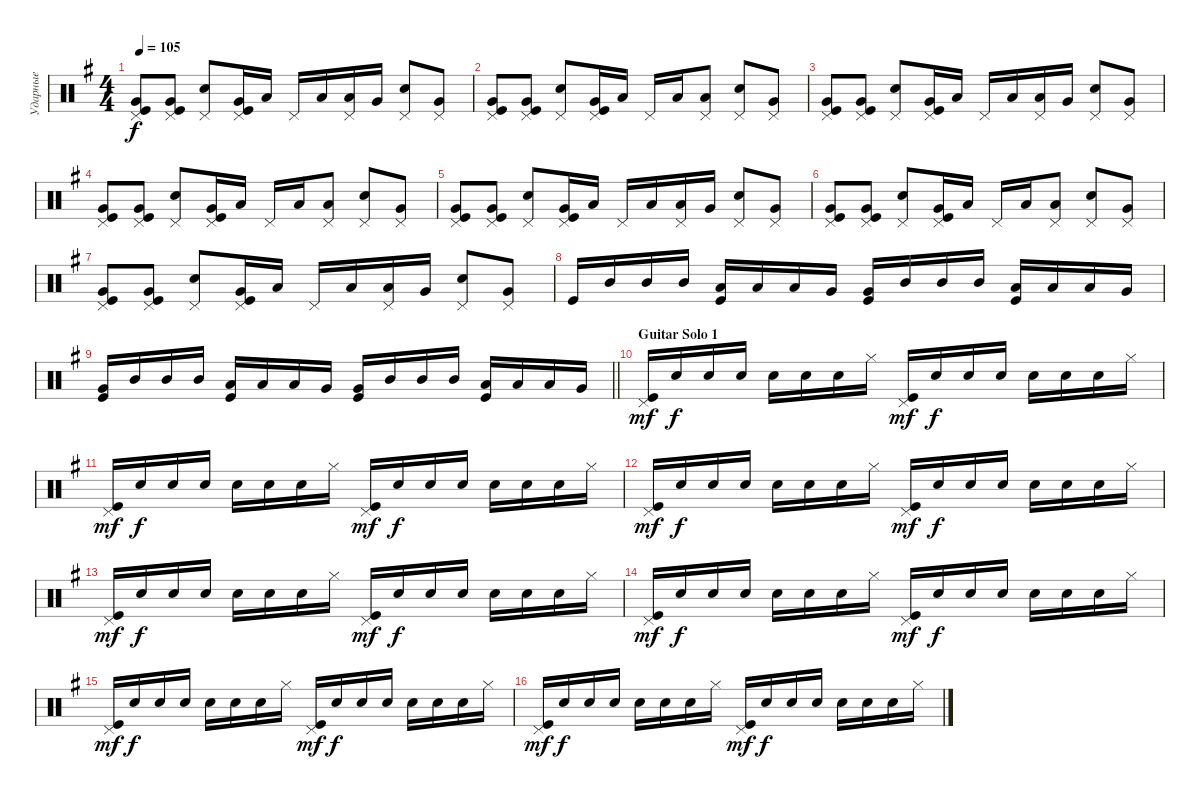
\track ("Ударные" "Ударные") {instrument percussion}
\staff {score}
\articulation defaults
\ts (4 4)
\tempo 105
\clef neutral
\ks eminor
("Kick (hit)" "Very Low Tom (hit)" "Pedal Hi-Hat (hit)").8{dy f} ("Kick (hit)" "Very Low Tom (hit)" "Pedal Hi-Hat (hit)").8 ("Snare (hit) 2" "Pedal Hi-Hat (hit)").8 ("Kick (hit)" "Very Low Tom (hit)" "Pedal Hi-Hat (hit)").16 "Low Tom (hit)".16 "Pedal Hi-Hat (hit)".16 "Low Tom (hit)".16 ("Low Tom (hit)" "Pedal Hi-Hat (hit)").16 "Very Low Tom (hit)".16 ("Snare (hit) 2" "Pedal Hi-Hat (hit)").8 ("Very Low Tom (hit)" "Pedal Hi-Hat (hit)").8 |
("Kick (hit)" "Very Low Tom (hit)" "Pedal Hi-Hat (hit)").8 ("Kick (hit)" "Very Low Tom (hit)" "Pedal Hi-Hat (hit)").8 ("Snare (hit) 2" "Pedal Hi-Hat (hit)").8 ("Kick (hit)" "Very Low Tom (hit)" "Pedal Hi-Hat (hit)").16 "Low Tom (hit)".16 "Pedal Hi-Hat (hit)".16 "Low Tom (hit)".16 ("Low Tom (hit)" "Pedal Hi-Hat (hit)").8 ("Snare (hit) 2" "Pedal Hi-Hat (hit)").8 ("Very Low Tom (hit)" "Pedal Hi-Hat (hit)").8 |
("Kick (hit)" "Very Low Tom (hit)" "Pedal Hi-Hat (hit)").8 ("Kick (hit)" "Very Low Tom (hit)" "Pedal Hi-Hat (hit)").8 ("Snare (hit) 2" "Pedal Hi-Hat (hit)").8 ("Kick (hit)" "Very Low Tom (hit)" "Pedal Hi-Hat (hit)").16 "Low Tom (hit)".16 "Pedal Hi-Hat (hit)".16 "Low Tom (hit)".16 ("Low Tom (hit)" "Pedal Hi-Hat (hit)").16 "Very Low Tom (hit)".16 ("Snare (hit) 2" "Pedal Hi-Hat (hit)").8 ("Very Low Tom (hit)" "Pedal Hi-Hat (hit)").8 |
("Kick (hit)" "Very Low Tom (hit)" "Pedal Hi-Hat (hit)").8 ("Kick (hit)" "Very Low Tom (hit)" "Pedal Hi-Hat (hit)").8 ("Snare (hit) 2" "Pedal Hi-Hat (hit)").8 ("Kick (hit)" "Very Low Tom (hit)" "Pedal Hi-Hat (hit)").16 "Low Tom (hit)".16 "Pedal Hi-Hat (hit)".16 "Low Tom (hit)".16 ("Low Tom (hit)" "Pedal Hi-Hat (hit)").8 ("Snare (hit) 2" "Pedal Hi-Hat (hit)").8 ("Very Low Tom (hit)" "Pedal Hi-Hat (hit)").8 |
("Kick (hit)" "Very Low Tom (hit)" "Pedal Hi-Hat (hit)").8 ("Kick (hit)" "Very Low Tom (hit)" "Pedal Hi-Hat (hit)").8 ("Snare (hit) 2" "Pedal Hi-Hat (hit)").8 ("Kick (hit)" "Very Low Tom (hit)" "Pedal Hi-Hat (hit)").16 "Low Tom (hit)".16 "Pedal Hi-Hat (hit)".16 "Low Tom (hit)".16 ("Low Tom (hit)" "Pedal Hi-Hat (hit)").16 "Very Low Tom (hit)".16 ("Snare (hit) 2" "Pedal Hi-Hat (hit)").8 ("Very Low Tom (hit)" "Pedal Hi-Hat (hit)").8 |
("Kick (hit)" "Very Low Tom (hit)" "Pedal Hi-Hat (hit)").8 ("Kick (hit)" "Very Low Tom (hit)" "Pedal Hi-Hat (hit)").8 ("Snare (hit) 2" "Pedal Hi-Hat (hit)").8 ("Kick (hit)" "Very Low Tom (hit)" "Pedal Hi-Hat (hit)").16 "Low Tom (hit)".16 "Pedal Hi-Hat (hit)".16 "Low Tom (hit)".16 ("Low Tom (hit)" "Pedal Hi-Hat (hit)").8 ("Snare (hit) 2" "Pedal Hi-Hat (hit)").8 ("Very Low Tom (hit)" "Pedal Hi-Hat (hit)").8 |
("Kick (hit)" "Very Low Tom (hit)" "Pedal Hi-Hat (hit)").8 ("Kick (hit)" "Very Low Tom (hit)" "Pedal Hi-Hat (hit)").8 ("Snare (hit) 2" "Pedal Hi-Hat (hit)").8 ("Kick (hit)" "Very Low Tom (hit)" "Pedal Hi-Hat (hit)").16 "Low Tom (hit)".16 "Pedal Hi-Hat (hit)".16 "Low Tom (hit)".16 ("Low Tom (hit)" "Pedal Hi-Hat (hit)").16 "Very Low Tom (hit)".16 ("Snare (hit) 2" "Pedal Hi-Hat (hit)").8 ("Very Low Tom (hit)" "Pedal Hi-Hat (hit)").8 |
"Kick (hit)".16 "Mid Tom (hit)".16 "Mid Tom (hit)".16 "Mid Tom (hit)".16 ("Low Tom (hit)" "Kick (hit)").16 "Low Tom (hit)".16 "Low Tom (hit)".16 "Very Low Tom (hit)".16 ("Very Low Tom (hit)" "Kick (hit)").16 "Mid Tom (hit)".16 "Mid Tom (hit)".16 "Mid Tom (hit)".16 ("Low Tom (hit)" "Kick (hit)").16 "Low Tom (hit)".16 "Low Tom (hit)".16 "Very Low Tom (hit)".16 |
\barLineRight lightlight
("Very Low Tom (hit)" "Kick (hit)").16 "Mid Tom (hit)".16 "Mid Tom (hit)".16 "Mid Tom (hit)".16 ("Low Tom (hit)" "Kick (hit)").16 "Low Tom (hit)".16 "Low Tom (hit)".16 "Very Low Tom (hit)".16 ("Very Low Tom (hit)" "Kick (hit)").16 "Mid Tom (hit)".16 "Mid Tom (hit)".16 "Mid Tom (hit)".16 ("Low Tom (hit)" "Kick (hit)").16 "Low Tom (hit)".16 "Low Tom (hit)".16 "Very Low Tom (hit)".16 |
\section ("" "Guitar Solo 1")
("Kick (hit)" "Pedal Hi-Hat (hit)").16{dy mf} "Snare (hit) 2".16{dy f} "Snare (hit) 2".16 "Snare (hit) 2".16 "Snare (hit) 2".16 "Snare (hit) 2".16 "Snare (hit) 2".16 "Hi-Hat (closed)".16 ("Pedal Hi-Hat (hit)" "Kick (hit)").16{dy mf} "Snare (hit) 2".16{dy f} "Snare (hit) 2".16 "Snare (hit) 2".16 "Snare (hit) 2".16 "Snare (hit) 2".16 "Snare (hit) 2".16 "Hi-Hat (closed)".16 |
("Pedal Hi-Hat (hit)" "Kick (hit)").16{dy mf} "Snare (hit) 2".16{dy f} "Snare (hit) 2".16 "Snare (hit) 2".16 "Snare (hit) 2".16 "Snare (hit) 2".16 "Snare (hit) 2".16 "Hi-Hat (closed)".16 ("Pedal Hi-Hat (hit)" "Kick (hit)").16{dy mf} "Snare (hit) 2".16{dy f} "Snare (hit) 2".16 "Snare (hit) 2".16 "Snare (hit) 2".16 "Snare (hit) 2".16 "Snare (hit) 2".16 "Hi-Hat (closed)".16 |
("Kick (hit)" "Pedal Hi-Hat (hit)").16{dy mf} "Snare (hit) 2".16{dy f} "Snare (hit) 2".16 "Snare (hit) 2".16 "Snare (hit) 2".16 "Snare (hit) 2".16 "Snare (hit) 2".16 "Hi-Hat (closed)".16 ("Pedal Hi-Hat (hit)" "Kick (hit)").16{dy mf} "Snare (hit) 2".16{dy f} "Snare (hit) 2".16 "Snare (hit) 2".16 "Snare (hit) 2".16 "Snare (hit) 2".16 "Snare (hit) 2".16 "Hi-Hat (closed)".16 |
("Pedal Hi-Hat (hit)" "Kick (hit)").16{dy mf} "Snare (hit) 2".16{dy f} "Snare (hit) 2".16 "Snare (hit) 2".16 "Snare (hit) 2".16 "Snare (hit) 2".16 "Snare (hit) 2".16 "Hi-Hat (closed)".16 ("Pedal Hi-Hat (hit)" "Kick (hit)").16{dy mf} "Snare (hit) 2".16{dy f} "Snare (hit) 2".16 "Snare (hit) 2".16 "Snare (hit) 2".16 "Snare (hit) 2".16 "Snare (hit) 2".16 "Hi-Hat (closed)".16 |
("Kick (hit)" "Pedal Hi-Hat (hit)").16{dy mf} "Snare (hit) 2".16{dy f} "Snare (hit) 2".16 "Snare (hit) 2".16 "Snare (hit) 2".16 "Snare (hit) 2".16 "Snare (hit) 2".16 "Hi-Hat (closed)".16 ("Pedal Hi-Hat (hit)" "Kick (hit)").16{dy mf} "Snare (hit) 2".16{dy f} "Snare (hit) 2".16 "Snare (hit) 2".16 "Snare (hit) 2".16 "Snare (hit) 2".16 "Snare (hit) 2".16 "Hi-Hat (closed)".16 |
("Pedal Hi-Hat (hit)" "Kick (hit)").16{dy mf} "Snare (hit) 2".16{dy f} "Snare (hit) 2".16 "Snare (hit) 2".16 "Snare (hit) 2".16 "Snare (hit) 2".16 "Snare (hit) 2".16 "Hi-Hat (closed)".16 ("Pedal Hi-Hat (hit)" "Kick (hit)").16{dy mf} "Snare (hit) 2".16{dy f} "Snare (hit) 2".16 "Snare (hit) 2".16 "Snare (hit) 2".16 "Snare (hit) 2".16 "Snare (hit) 2".16 "Hi-Hat (closed)".16 |
("Kick (hit)" "Pedal Hi-Hat (hit)").16{dy mf} "Snare (hit) 2".16{dy f} "Snare (hit) 2".16 "Snare (hit) 2".16 "Snare (hit) 2".16 "Snare (hit) 2".16 "Snare (hit) 2".16 "Hi-Hat (closed)".16 ("Pedal Hi-Hat (hit)" "Kick (hit)").16{dy mf} "Snare (hit) 2".16{dy f} "Snare (hit) 2".16 "Snare (hit) 2".16 "Snare (hit) 2".16 "Snare (hit) 2".16 "Snare (hit) 2".16 "Hi-Hat (closed)".16
